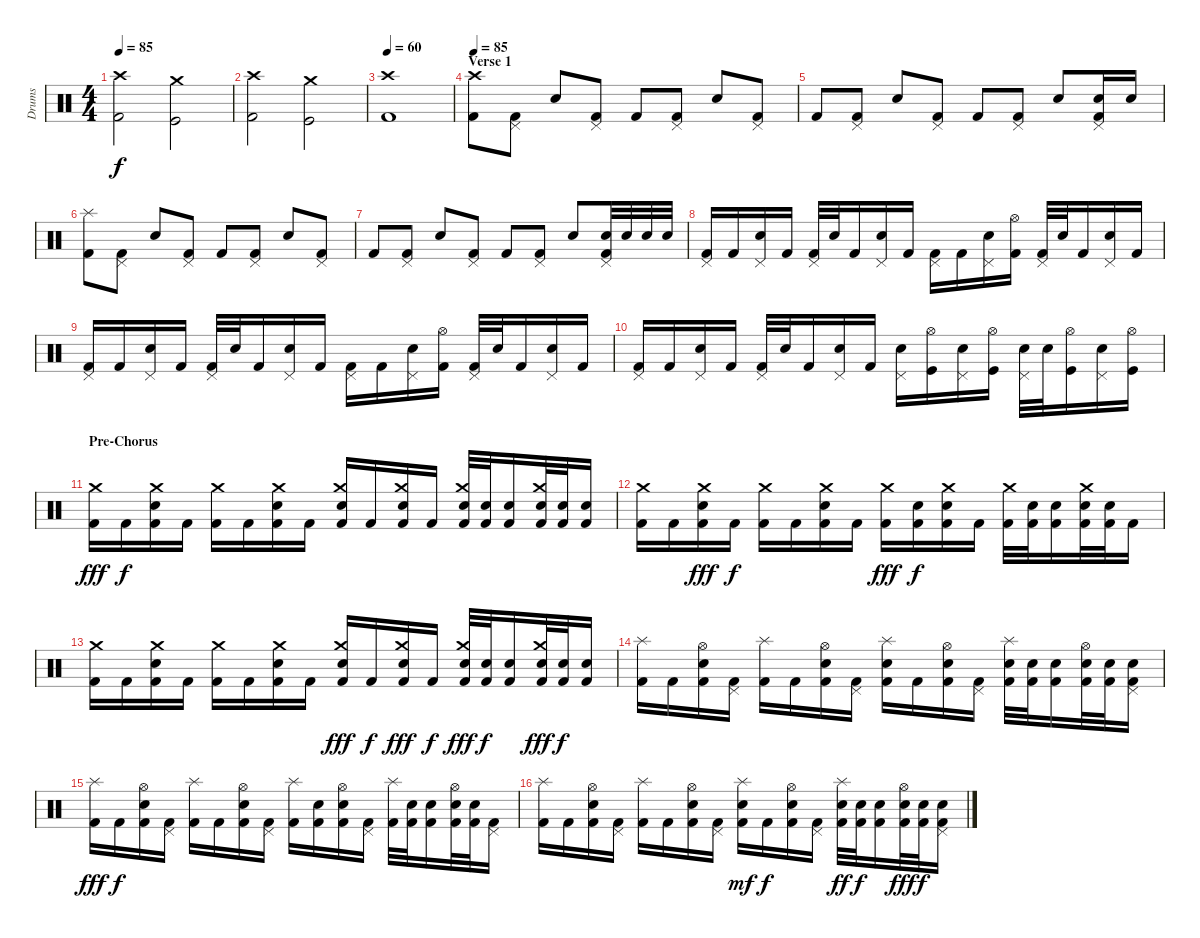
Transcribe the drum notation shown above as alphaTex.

\track ("Drums" "Drums") {instrument percussion}
\staff {score}
\articulation defaults
\ts (4 4)
\tempo 85
\clef neutral
\ks c
("Crash high (hit)" "Kick (hit) 2").2{dy f} ("Crash medium (hit)" "Kick (hit)").2 |
("Crash high (hit)" "Kick (hit) 2").2 ("Crash medium (hit)" "Kick (hit)").2 |
\tempo 60
("Crash high (hit)" "Kick (hit) 2").1 |
\section ("" "Verse 1")
\tempo 85
("Crash high (hit)" "Kick (hit) 2").8 ("Pedal Hi-Hat (hit)" "Kick (hit) 2").8 "Electric Snare (hit)".8 ("Pedal Hi-Hat (hit)" "Kick (hit) 2").8 "Kick (hit) 2".8 ("Pedal Hi-Hat (hit)" "Kick (hit) 2").8 "Electric Snare (hit)".8 ("Pedal Hi-Hat (hit)" "Kick (hit) 2").8 |
"Kick (hit) 2".8 ("Pedal Hi-Hat (hit)" "Kick (hit) 2").8 "Electric Snare (hit)".8 ("Pedal Hi-Hat (hit)" "Kick (hit) 2").8 "Kick (hit) 2".8 ("Pedal Hi-Hat (hit)" "Kick (hit) 2").8 "Electric Snare (hit)".8 ("Pedal Hi-Hat (hit)" "Electric Snare (hit)" "Kick (hit) 2").16 "Electric Snare (hit)".16 |
("Splash (hit)" "Kick (hit) 2").8 ("Pedal Hi-Hat (hit)" "Kick (hit) 2").8 "Electric Snare (hit)".8 ("Pedal Hi-Hat (hit)" "Kick (hit) 2").8 "Kick (hit) 2".8 ("Pedal Hi-Hat (hit)" "Kick (hit) 2").8 "Electric Snare (hit)".8 ("Pedal Hi-Hat (hit)" "Kick (hit) 2").8 |
"Kick (hit) 2".8 ("Pedal Hi-Hat (hit)" "Kick (hit) 2").8 "Electric Snare (hit)".8 ("Pedal Hi-Hat (hit)" "Kick (hit) 2").8 "Kick (hit) 2".8 ("Pedal Hi-Hat (hit)" "Kick (hit) 2").8 "Electric Snare (hit)".8 ("Pedal Hi-Hat (hit)" "Electric Snare (hit)" "Kick (hit) 2").32 "Electric Snare (hit)".32 "Electric Snare (hit)".32 "Electric Snare (hit)".32 |
("Pedal Hi-Hat (hit)" "Kick (hit) 2").16 "Kick (hit) 2".16 ("Pedal Hi-Hat (hit)" "Electric Snare (hit)").16 "Kick (hit) 2".16 ("Pedal Hi-Hat (hit)" "Kick (hit) 2").32 "Electric Snare (hit)".32 "Kick (hit) 2".16 ("Pedal Hi-Hat (hit)" "Electric Snare (hit)").16 "Kick (hit) 2".16 ("Pedal Hi-Hat (hit)" "Kick (hit) 2").16 "Kick (hit) 2".16 ("Pedal Hi-Hat (hit)" "Electric Snare (hit)").16 ("Hi-Hat (open)" "Kick (hit) 2").16 ("Pedal Hi-Hat (hit)" "Kick (hit) 2").32 "Electric Snare (hit)".32 "Kick (hit) 2".16 ("Pedal Hi-Hat (hit)" "Electric Snare (hit)").16 "Kick (hit) 2".16 |
("Pedal Hi-Hat (hit)" "Kick (hit) 2").16 "Kick (hit) 2".16 ("Pedal Hi-Hat (hit)" "Electric Snare (hit)").16 "Kick (hit) 2".16 ("Pedal Hi-Hat (hit)" "Kick (hit) 2").32 "Electric Snare (hit)".32 "Kick (hit) 2".16 ("Pedal Hi-Hat (hit)" "Electric Snare (hit)").16 "Kick (hit) 2".16 ("Pedal Hi-Hat (hit)" "Kick (hit) 2").16 "Kick (hit) 2".16 ("Pedal Hi-Hat (hit)" "Electric Snare (hit)").16 ("Hi-Hat (open)" "Kick (hit) 2").16 ("Pedal Hi-Hat (hit)" "Kick (hit) 2").32 "Electric Snare (hit)".32 "Kick (hit) 2".16 ("Pedal Hi-Hat (hit)" "Electric Snare (hit)").16 "Kick (hit) 2".16 |
("Pedal Hi-Hat (hit)" "Kick (hit) 2").16 "Kick (hit) 2".16 ("Pedal Hi-Hat (hit)" "Electric Snare (hit)").16 "Kick (hit) 2".16 ("Pedal Hi-Hat (hit)" "Kick (hit) 2").32 "Electric Snare (hit)".32 "Kick (hit) 2".16 ("Pedal Hi-Hat (hit)" "Electric Snare (hit)").16 "Kick (hit) 2".16 ("Pedal Hi-Hat (hit)" "Electric Snare (hit)").16 ("Hi-Hat (open)" "Kick (hit)").16 ("Pedal Hi-Hat (hit)" "Electric Snare (hit)").16 ("Hi-Hat (open)" "Kick (hit)").16 ("Pedal Hi-Hat (hit)" "Electric Snare (hit)").32 "Electric Snare (hit)".32 ("Hi-Hat (open)" "Kick (hit)").16 ("Pedal Hi-Hat (hit)" "Electric Snare (hit)").16 ("Hi-Hat (open)" "Kick (hit)").16 |
\section ("" "Pre-Chorus")
("Crash medium (hit)" "Kick (hit) 2").16{dy fff} "Kick (hit) 2".16{dy f} ("Crash medium (hit)" "Electric Snare (hit)" "Kick (hit) 2").16 "Kick (hit) 2".16 ("Crash medium (hit)" "Kick (hit) 2").16 "Kick (hit) 2".16 ("Crash medium (hit)" "Electric Snare (hit)" "Kick (hit) 2").16 "Kick (hit) 2".16 ("Crash medium (hit)" "Electric Snare (hit)" "Kick (hit) 2").16 "Kick (hit) 2".16 ("Crash medium (hit)" "Electric Snare (hit)" "Kick (hit) 2").16 "Kick (hit) 2".16 ("Crash medium (hit)" "Electric Snare (hit)" "Kick (hit) 2").32 ("Electric Snare (hit)" "Kick (hit) 2").32 ("Electric Snare (hit)" "Kick (hit) 2").16 ("Crash medium (hit)" "Electric Snare (hit)" "Kick (hit) 2").32 ("Electric Snare (hit)" "Kick (hit) 2").32 ("Electric Snare (hit)" "Kick (hit) 2").16 |
("Crash medium (hit)" "Kick (hit) 2").16 "Kick (hit) 2".16 ("Crash medium (hit)" "Electric Snare (hit)" "Kick (hit) 2").16{dy fff} "Kick (hit) 2".16{dy f} ("Crash medium (hit)" "Kick (hit) 2").16 "Kick (hit) 2".16 ("Crash medium (hit)" "Electric Snare (hit)" "Kick (hit) 2").16 "Kick (hit) 2".16 ("Crash medium (hit)" "Kick (hit) 2").16{dy fff} ("Electric Snare (hit)" "Kick (hit) 2").16{dy f} ("Crash medium (hit)" "Electric Snare (hit)" "Kick (hit) 2").16 "Kick (hit) 2".16 ("Crash medium (hit)" "Kick (hit) 2").32 ("Electric Snare (hit)" "Kick (hit) 2").32 ("Electric Snare (hit)" "Kick (hit) 2").16 ("Crash medium (hit)" "Electric Snare (hit)" "Kick (hit) 2").32 ("Electric Snare (hit)" "Kick (hit) 2").32 "Kick (hit) 2".16 |
("Crash medium (hit)" "Kick (hit) 2").16 "Kick (hit) 2".16 ("Crash medium (hit)" "Electric Snare (hit)" "Kick (hit) 2").16 "Kick (hit) 2".16 ("Crash medium (hit)" "Kick (hit) 2").16 "Kick (hit) 2".16 ("Crash medium (hit)" "Electric Snare (hit)" "Kick (hit) 2").16 "Kick (hit) 2".16 ("Crash medium (hit)" "Electric Snare (hit)" "Kick (hit) 2").16{dy fff} "Kick (hit) 2".16{dy f} ("Crash medium (hit)" "Electric Snare (hit)" "Kick (hit) 2").16{dy fff} "Kick (hit) 2".16{dy f} ("Crash medium (hit)" "Electric Snare (hit)" "Kick (hit) 2").32{dy fff} ("Electric Snare (hit)" "Kick (hit) 2").32{dy f} ("Electric Snare (hit)" "Kick (hit) 2").16 ("Crash medium (hit)" "Electric Snare (hit)" "Kick (hit) 2").32{dy fff} ("Electric Snare (hit)" "Kick (hit) 2").32{dy f} ("Electric Snare (hit)" "Kick (hit) 2").16 |
("Splash (hit)" "Kick (hit) 2").16 "Kick (hit) 2".16 ("Hi-Hat (open)" "Electric Snare (hit)" "Kick (hit) 2").16 ("Pedal Hi-Hat (hit)" "Kick (hit) 2").16 ("Splash (hit)" "Kick (hit) 2").16 "Kick (hit) 2".16 ("Hi-Hat (open)" "Electric Snare (hit)" "Kick (hit) 2").16 ("Pedal Hi-Hat (hit)" "Kick (hit) 2").16 ("Splash (hit)" "Electric Snare (hit)" "Kick (hit) 2").16 "Kick (hit) 2".16 ("Hi-Hat (open)" "Electric Snare (hit)" "Kick (hit) 2").16 ("Pedal Hi-Hat (hit)" "Kick (hit) 2").16 ("Splash (hit)" "Electric Snare (hit)" "Kick (hit) 2").32 ("Electric Snare (hit)" "Kick (hit) 2").32 ("Electric Snare (hit)" "Kick (hit) 2").16 ("Hi-Hat (open)" "Electric Snare (hit)" "Kick (hit) 2").32 ("Electric Snare (hit)" "Kick (hit) 2").32 ("Pedal Hi-Hat (hit)" "Electric Snare (hit)" "Kick (hit) 2").16 |
("Splash (hit)" "Kick (hit) 2").16{dy fff} "Kick (hit) 2".16{dy f} ("Hi-Hat (open)" "Electric Snare (hit)" "Kick (hit) 2").16 ("Pedal Hi-Hat (hit)" "Kick (hit) 2").16 ("Splash (hit)" "Kick (hit) 2").16 "Kick (hit) 2".16 ("Hi-Hat (open)" "Electric Snare (hit)" "Kick (hit) 2").16 ("Pedal Hi-Hat (hit)" "Kick (hit) 2").16 ("Splash (hit)" "Kick (hit) 2").16 ("Electric Snare (hit)" "Kick (hit) 2").16 ("Hi-Hat (open)" "Electric Snare (hit)" "Kick (hit) 2").16 ("Pedal Hi-Hat (hit)" "Kick (hit) 2").16 ("Splash (hit)" "Kick (hit) 2").32 ("Electric Snare (hit)" "Kick (hit) 2").32 ("Electric Snare (hit)" "Kick (hit) 2").16 ("Hi-Hat (open)" "Electric Snare (hit)" "Kick (hit) 2").32 ("Electric Snare (hit)" "Kick (hit) 2").32 ("Pedal Hi-Hat (hit)" "Kick (hit) 2").16 |
("Splash (hit)" "Kick (hit) 2").16 "Kick (hit) 2".16 ("Hi-Hat (open)" "Electric Snare (hit)" "Kick (hit) 2").16 ("Pedal Hi-Hat (hit)" "Kick (hit) 2").16 ("Splash (hit)" "Kick (hit) 2").16 "Kick (hit) 2".16 ("Hi-Hat (open)" "Electric Snare (hit)" "Kick (hit) 2").16 ("Pedal Hi-Hat (hit)" "Kick (hit) 2").16 ("Splash (hit)" "Electric Snare (hit)" "Kick (hit) 2").16{dy mf} "Kick (hit) 2".16{dy f} ("Hi-Hat (open)" "Electric Snare (hit)" "Kick (hit) 2").16 ("Pedal Hi-Hat (hit)" "Kick (hit) 2").16 ("Splash (hit)" "Electric Snare (hit)" "Kick (hit) 2").32{dy ff} ("Electric Snare (hit)" "Kick (hit) 2").32{dy f} ("Electric Snare (hit)" "Kick (hit) 2").16 ("Hi-Hat (open)" "Electric Snare (hit)" "Kick (hit) 2").32{dy fff} ("Electric Snare (hit)" "Kick (hit) 2").32{dy f} ("Pedal Hi-Hat (hit)" "Electric Snare (hit)" "Kick (hit) 2").16
